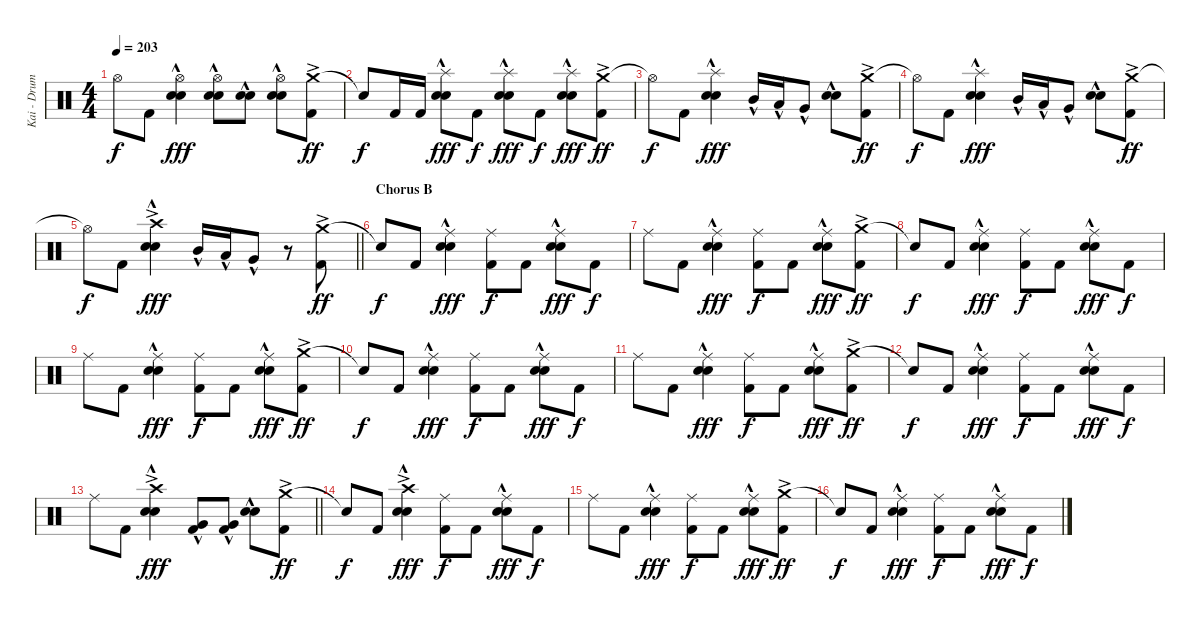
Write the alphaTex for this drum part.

\track ("Kai - Drums" "Kai - Drum") {instrument percussion}
\staff {score}
\articulation defaults
\ts (4 4)
\tempo 203
\clef neutral
\ks c "Hi-Hat (open)".8{dy f} "Kick (hit) 2".8
("Hi-Hat (open)" "Electric Snare (hit)"{hac} "Snare (hit) 2"{hac}).4{dy fff} ("Hi-Hat (open)" "Electric Snare (hit)"{hac} "Snare (hit) 2"{hac}).8 ("Electric Snare (hit)"{hac} "Snare (hit) 2"{hac}).8 ("Hi-Hat (open)" "Electric Snare (hit)"{hac} "Snare (hit) 2"{hac}).8 ("Crash medium (hit)"{ac} "Kick (hit) 2").8{dy ff} |
"Snare (hit)"{t}.8{dy f} "Kick (hit) 2".16 "Kick (hit) 2".16 ("Splash (hit)"{hac} "Electric Snare (hit)"{hac} "Snare (hit) 2"{hac}).8{dy fff} "Kick (hit) 2".8{dy f} ("Splash (hit)"{hac} "Electric Snare (hit)"{hac} "Snare (hit) 2"{hac}).8{dy fff} "Kick (hit) 2".8{dy f} ("Splash (hit)"{hac} "Electric Snare (hit)"{hac} "Snare (hit) 2"{hac}).8{dy fff} ("Crash medium (hit)"{ac} "Kick (hit) 2").8{dy ff} |
"Hi-Hat (open)"{t}.8{dy f} "Kick (hit) 2".8 ("Splash (hit)"{hac} "Electric Snare (hit)"{hac} "Snare (hit) 2"{hac}).4{dy fff} "Mid Tom (hit)"{hac}.16 "Low Tom (hit)"{hac}.16 "Very Low Tom (hit)"{hac}.8 ("Electric Snare (hit)"{hac} "Snare (hit) 2"{hac}).8 ("Crash medium (hit)"{ac} "Kick (hit) 2").8{dy ff} |
"Hi-Hat (open)"{t}.8{dy f} "Kick (hit) 2".8 ("Splash (hit)"{hac} "Electric Snare (hit)"{hac} "Snare (hit) 2"{hac}).4{dy fff} "Mid Tom (hit)"{hac}.16 "Low Tom (hit)"{hac}.16 "Very Low Tom (hit)"{hac}.8 ("Electric Snare (hit)"{hac} "Snare (hit) 2"{hac}).8 ("Crash medium (hit)"{ac} "Kick (hit) 2").8{dy ff} |
\barLineRight lightlight "Hi-Hat (open)"{t}.8{dy f} "Kick (hit) 2".8
("Crash high (hit)"{ac} "Electric Snare (hit)"{hac} "Snare (hit) 2"{hac}).4{dy fff} "Mid Tom (hit)"{hac}.16 "Low Tom (hit)"{hac}.16 "Very Low Tom (hit)"{hac}.8 r.8 ("Crash medium (hit)"{ac} "Kick (hit) 2").8{dy ff} |
\section ("" "Chorus B")
"Snare (hit)"{t}.8{dy f} "Kick (hit) 2".8 ("Ride (middle)" "Electric Snare (hit)"{hac} "Snare (hit) 2"{hac}).4{dy fff} ("Ride (middle)" "Kick (hit) 2").8{dy f} "Kick (hit) 2".8 ("Ride (middle)" "Electric Snare (hit)"{hac} "Snare (hit) 2"{hac}).8{dy fff} "Kick (hit) 2".8{dy f} |
"Ride (middle)".8 "Kick (hit) 2".8 ("Ride (middle)" "Electric Snare (hit)"{hac} "Snare (hit) 2"{hac}).4{dy fff} ("Ride (middle)" "Kick (hit) 2").8{dy f} "Kick (hit) 2".8 ("Ride (middle)" "Electric Snare (hit)"{hac} "Snare (hit) 2"{hac}).8{dy fff} ("Crash medium (hit)"{ac} "Kick (hit) 2").8{dy ff} |
"Snare (hit)"{t}.8{dy f} "Kick (hit) 2".8 ("Ride (middle)" "Electric Snare (hit)"{hac} "Snare (hit) 2"{hac}).4{dy fff} ("Ride (middle)" "Kick (hit) 2").8{dy f} "Kick (hit) 2".8 ("Ride (middle)" "Electric Snare (hit)"{hac} "Snare (hit) 2"{hac}).8{dy fff} "Kick (hit) 2".8{dy f} |
"Ride (middle)".8 "Kick (hit) 2".8 ("Ride (middle)" "Electric Snare (hit)"{hac} "Snare (hit) 2"{hac}).4{dy fff} ("Ride (middle)" "Kick (hit) 2").8{dy f} "Kick (hit) 2".8 ("Ride (middle)" "Electric Snare (hit)"{hac} "Snare (hit) 2"{hac}).8{dy fff} ("Crash medium (hit)"{ac} "Kick (hit) 2").8{dy ff} |
"Snare (hit)"{t}.8{dy f} "Kick (hit) 2".8 ("Ride (middle)" "Electric Snare (hit)"{hac} "Snare (hit) 2"{hac}).4{dy fff} ("Ride (middle)" "Kick (hit) 2").8{dy f} "Kick (hit) 2".8 ("Ride (middle)" "Electric Snare (hit)"{hac} "Snare (hit) 2"{hac}).8{dy fff} "Kick (hit) 2".8{dy f} |
"Ride (middle)".8 "Kick (hit) 2".8 ("Ride (middle)" "Electric Snare (hit)"{hac} "Snare (hit) 2"{hac}).4{dy fff} ("Ride (middle)" "Kick (hit) 2").8{dy f} "Kick (hit) 2".8 ("Ride (middle)" "Electric Snare (hit)"{hac} "Snare (hit) 2"{hac}).8{dy fff} ("Crash medium (hit)"{ac} "Kick (hit) 2").8{dy ff} |
"Snare (hit)"{t}.8{dy f} "Kick (hit) 2".8 ("Ride (middle)" "Electric Snare (hit)"{hac} "Snare (hit) 2"{hac}).4{dy fff} ("Ride (middle)" "Kick (hit) 2").8{dy f} "Kick (hit) 2".8 ("Ride (middle)" "Electric Snare (hit)"{hac} "Snare (hit) 2"{hac}).8{dy fff} "Kick (hit) 2".8{dy f} |
\barLineRight lightlight "Ride (middle)".8 "Kick (hit) 2".8
("Crash high (hit)"{ac} "Electric Snare (hit)"{hac} "Snare (hit) 2"{hac}).4{dy fff} ("Very Low Tom (hit)"{hac} "Kick (hit) 2").8 ("Very Low Tom (hit)"{hac} "Kick (hit) 2").8 ("Electric Snare (hit)"{hac} "Snare (hit) 2"{hac}).8 ("Crash medium (hit)"{ac} "Kick (hit) 2").8{dy ff} |
\section ("" "")
"Snare (hit)"{t}.8{dy f} "Kick (hit) 2".8 ("Crash high (hit)"{ac} "Electric Snare (hit)"{hac} "Snare (hit) 2"{hac}).4{dy fff} ("Ride (middle)" "Kick (hit) 2").8{dy f} "Kick (hit) 2".8 ("Ride (middle)" "Electric Snare (hit)"{hac} "Snare (hit) 2"{hac}).8{dy fff} "Kick (hit) 2".8{dy f} |
"Ride (middle)".8 "Kick (hit) 2".8 ("Ride (middle)" "Electric Snare (hit)"{hac} "Snare (hit) 2"{hac}).4{dy fff} ("Ride (middle)" "Kick (hit) 2").8{dy f} "Kick (hit) 2".8 ("Ride (middle)" "Electric Snare (hit)"{hac} "Snare (hit) 2"{hac}).8{dy fff} ("Crash medium (hit)"{ac} "Kick (hit) 2").8{dy ff} |
"Snare (hit)"{t}.8{dy f} "Kick (hit) 2".8 ("Ride (middle)" "Electric Snare (hit)"{hac} "Snare (hit) 2"{hac}).4{dy fff} ("Ride (middle)" "Kick (hit) 2").8{dy f} "Kick (hit) 2".8 ("Ride (middle)" "Electric Snare (hit)"{hac} "Snare (hit) 2"{hac}).8{dy fff} "Kick (hit) 2".8{dy f}
